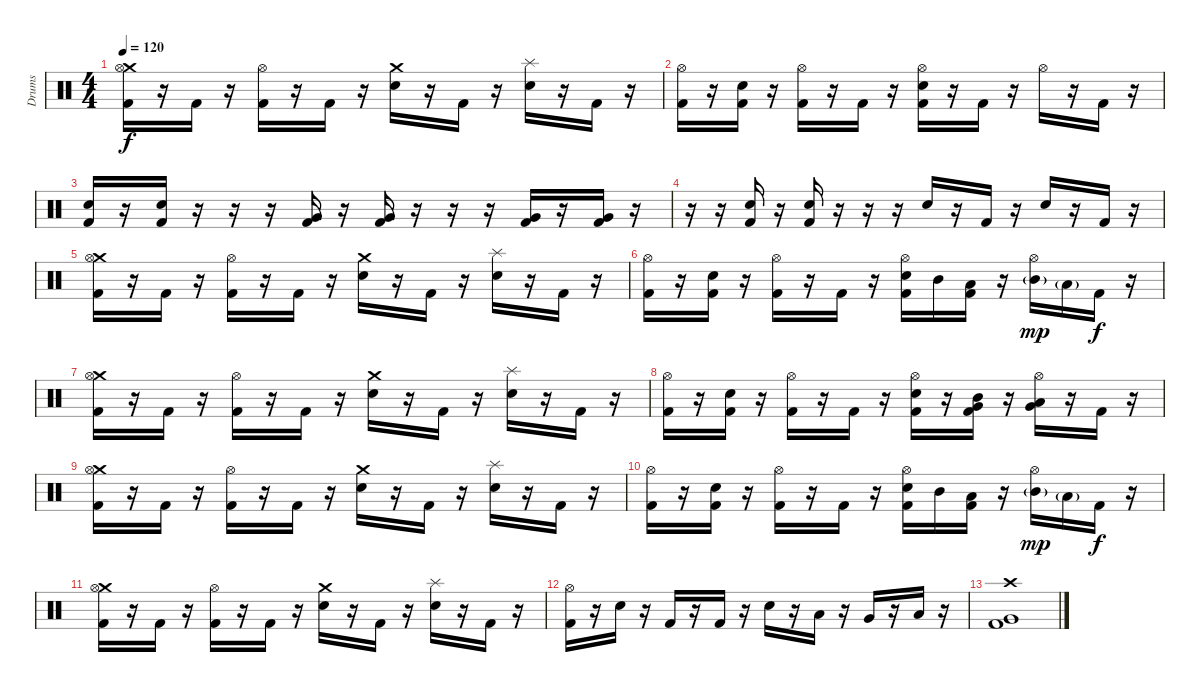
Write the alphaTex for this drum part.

\track ("Drums" "Drums") {instrument percussion}
\staff {score}
\articulation defaults
\ts (4 4)
\tempo 120
\clef neutral
\ks c
("Crash medium (hit)" "Hi-Hat (open)" "Kick (hit) 2").16{dy f} r.16 "Kick (hit) 2".16 r.16 ("Hi-Hat (open)" "Kick (hit) 2").16 r.16 "Kick (hit) 2".16 r.16 ("Snare (hit) 2" "Crash medium (hit)").16 r.16 "Kick (hit) 2".16 r.16 ("Snare (hit) 2" "Splash (hit)").16 r.16 "Kick (hit) 2".16 r.16 |
("Hi-Hat (open)" "Kick (hit) 2").16 r.16 ("Snare (hit) 2" "Kick (hit) 2").16 r.16 ("Hi-Hat (open)" "Kick (hit) 2").16 r.16 "Kick (hit) 2".16 r.16 ("Hi-Hat (open)" "Snare (hit) 2" "Kick (hit) 2").16 r.16 "Kick (hit) 2".16 r.16 "Hi-Hat (open)".16 r.16 "Kick (hit) 2".16 r.16 |
("Snare (hit) 2" "Kick (hit) 2").16 r.16 ("Snare (hit) 2" "Kick (hit) 2").16 r.16 r.16 r.16 ("Very Low Tom (hit)" "Kick (hit) 2").16 r.16 ("Very Low Tom (hit)" "Kick (hit) 2").16 r.16 r.16 r.16 ("Very Low Tom (hit)" "Kick (hit) 2").16 r.16 ("Very Low Tom (hit)" "Kick (hit) 2").16 r.16 |
r.16 r.16 ("Snare (hit) 2" "Kick (hit) 2").16 r.16 ("Snare (hit) 2" "Kick (hit) 2").16 r.16 r.16 r.16 "Snare (hit) 2".16 r.16 "Kick (hit) 2".16 r.16 "Snare (hit) 2".16 r.16 "Kick (hit) 2".16 r.16 |
("Crash medium (hit)" "Hi-Hat (open)" "Kick (hit) 2").16 r.16 "Kick (hit) 2".16 r.16 ("Hi-Hat (open)" "Kick (hit) 2").16 r.16 "Kick (hit) 2".16 r.16 ("Snare (hit) 2" "Crash medium (hit)").16 r.16 "Kick (hit) 2".16 r.16 ("Snare (hit) 2" "Splash (hit)").16 r.16 "Kick (hit) 2".16 r.16 |
("Hi-Hat (open)" "Kick (hit) 2").16 r.16 ("Snare (hit) 2" "Kick (hit) 2").16 r.16 ("Hi-Hat (open)" "Kick (hit) 2").16 r.16 "Kick (hit) 2".16 r.16 ("Hi-Hat (open)" "Snare (hit) 2" "Kick (hit) 2").16 "Mid Tom (hit)".16 ("Low Tom (hit)" "Kick (hit) 2").16 r.16 ("Hi-Hat (open)" "Mid Tom (hit)"{g}).16{dy mp} "Low Tom (hit)"{g}.16 "Kick (hit) 2".16{dy f} r.16 |
("Crash medium (hit)" "Hi-Hat (open)" "Kick (hit) 2").16 r.16 "Kick (hit) 2".16 r.16 ("Hi-Hat (open)" "Kick (hit) 2").16 r.16 "Kick (hit) 2".16 r.16 ("Snare (hit) 2" "Crash medium (hit)").16 r.16 "Kick (hit) 2".16 r.16 ("Snare (hit) 2" "Splash (hit)").16 r.16 "Kick (hit) 2".16 r.16 |
("Hi-Hat (open)" "Kick (hit) 2").16 r.16 ("Snare (hit) 2" "Kick (hit) 2").16 r.16 ("Hi-Hat (open)" "Kick (hit) 2").16 r.16 "Kick (hit) 2".16 r.16 ("Hi-Hat (open)" "Snare (hit) 2" "Kick (hit) 2").16 r.16 ("Mid Tom (hit)" "Very Low Tom (hit)" "Kick (hit) 2").16 r.16 ("Hi-Hat (open)" "Very Low Tom (hit)" "Low Tom (hit)").16 r.16 "Kick (hit) 2".16 r.16 |
("Crash medium (hit)" "Hi-Hat (open)" "Kick (hit) 2").16 r.16 "Kick (hit) 2".16 r.16 ("Hi-Hat (open)" "Kick (hit) 2").16 r.16 "Kick (hit) 2".16 r.16 ("Snare (hit) 2" "Crash medium (hit)").16 r.16 "Kick (hit) 2".16 r.16 ("Snare (hit) 2" "Splash (hit)").16 r.16 "Kick (hit) 2".16 r.16 |
("Hi-Hat (open)" "Kick (hit) 2").16 r.16 ("Snare (hit) 2" "Kick (hit) 2").16 r.16 ("Hi-Hat (open)" "Kick (hit) 2").16 r.16 "Kick (hit) 2".16 r.16 ("Hi-Hat (open)" "Snare (hit) 2" "Kick (hit) 2").16 "Mid Tom (hit)".16 ("Low Tom (hit)" "Kick (hit) 2").16 r.16 ("Hi-Hat (open)" "Mid Tom (hit)"{g}).16{dy mp} "Low Tom (hit)"{g}.16 "Kick (hit) 2".16{dy f} r.16 |
("Crash medium (hit)" "Hi-Hat (open)" "Kick (hit) 2").16 r.16 "Kick (hit) 2".16 r.16 ("Hi-Hat (open)" "Kick (hit) 2").16 r.16 "Kick (hit) 2".16 r.16 ("Snare (hit) 2" "Crash medium (hit)").16 r.16 "Kick (hit) 2".16 r.16 ("Snare (hit) 2" "Splash (hit)").16 r.16 "Kick (hit) 2".16 r.16 |
("Hi-Hat (open)" "Kick (hit) 2").16 r.16 "Snare (hit) 2".16 r.16 "Kick (hit) 2".16 r.16 "Kick (hit) 2".16 r.16 "Snare (hit) 2".16 r.16 "Low Tom (hit)".16 r.16 "Very Low Tom (hit)".16 r.16 "Low Floor Tom (hit)".16 r.16 |
("Very Low Tom (hit)" "Kick (hit) 2" "Crash high (hit)").1
